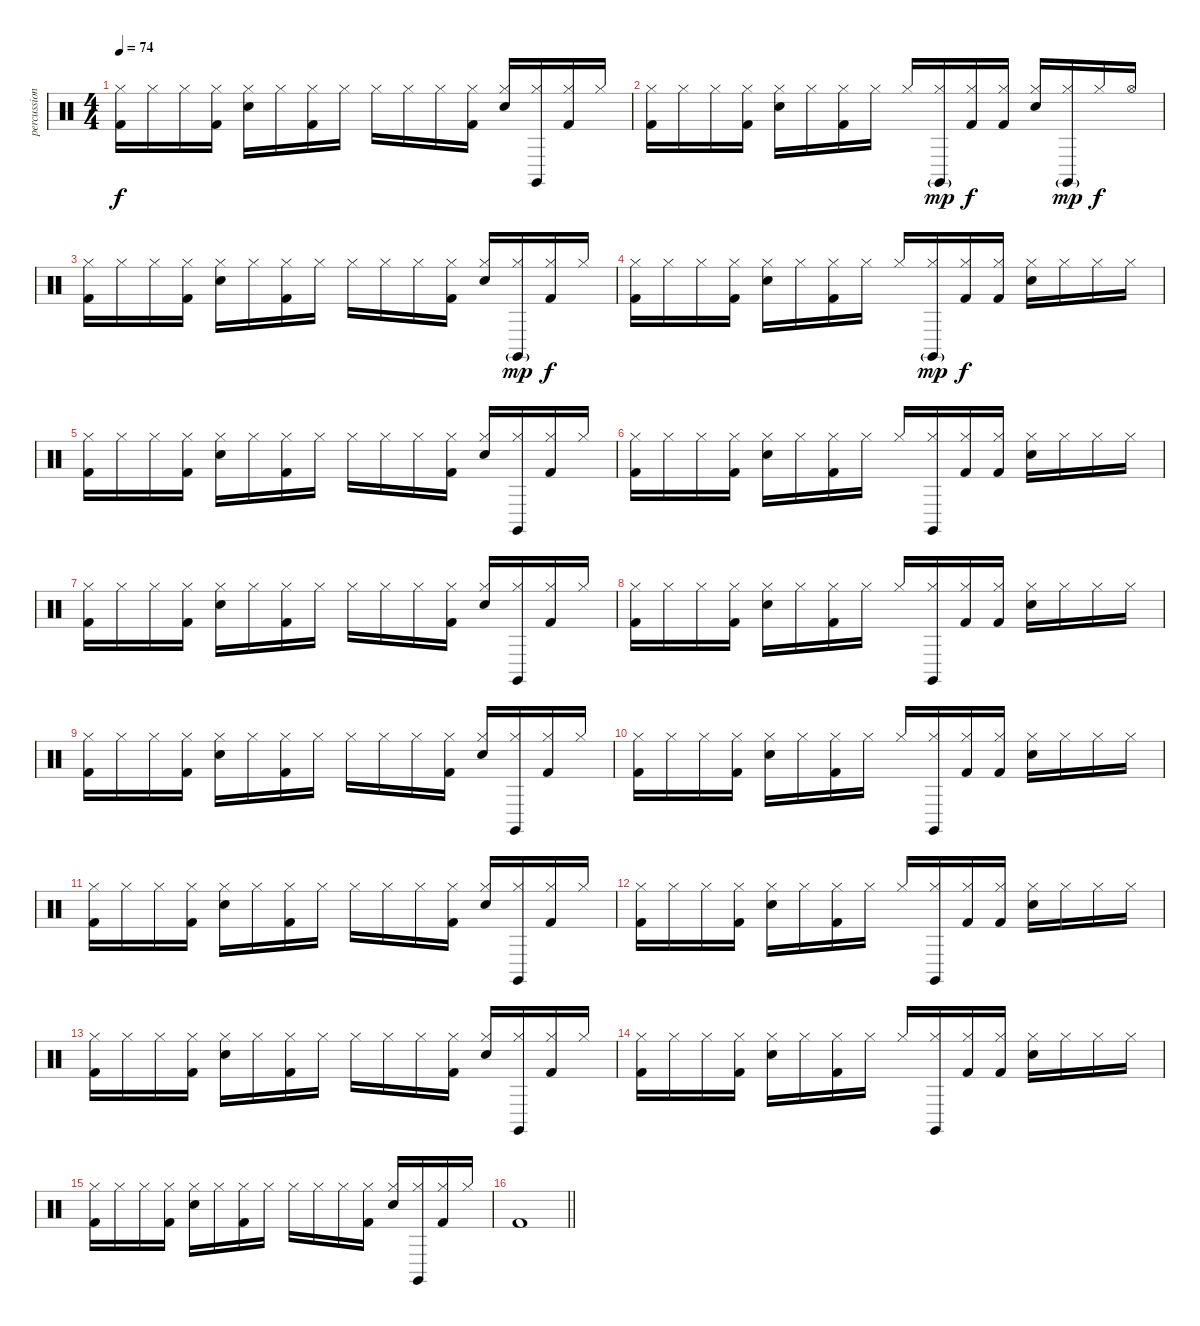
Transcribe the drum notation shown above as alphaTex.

\track ("percussion" "percussion") {instrument percussion}
\staff {score}
\articulation defaults
\ts (4 4)
\tempo 74
\clef neutral
\ks c
("Hi-Hat (closed)" "Kick (hit) 2").16{dy f} "Hi-Hat (closed)".16 "Hi-Hat (closed)".16 ("Hi-Hat (closed)" "Kick (hit) 2").16 ("Snare (hit) 2" "Hi-Hat (closed)").16 "Hi-Hat (closed)".16 ("Hi-Hat (closed)" "Kick (hit) 2").16 "Hi-Hat (closed)".16 "Hi-Hat (closed)".16 "Hi-Hat (closed)".16 "Hi-Hat (closed)".16 ("Hi-Hat (closed)" "Kick (hit) 2").16 ("Snare (hit) 2" "Hi-Hat (closed)").16 ("Claves (hit)" "Hi-Hat (closed)").16 ("Hi-Hat (closed)" "Kick (hit) 2").16 "Hi-Hat (closed)".16 |
("Hi-Hat (closed)" "Kick (hit) 2").16 "Hi-Hat (closed)".16 "Hi-Hat (closed)".16 ("Hi-Hat (closed)" "Kick (hit) 2").16 ("Snare (hit) 2" "Hi-Hat (closed)").16 "Hi-Hat (closed)".16 ("Hi-Hat (closed)" "Kick (hit) 2").16 "Hi-Hat (closed)".16 "Hi-Hat (closed)".16 ("Claves (hit)"{g} "Hi-Hat (closed)").16{dy mp} ("Hi-Hat (closed)" "Kick (hit) 2").16{dy f} ("Hi-Hat (closed)" "Kick (hit) 2").16 ("Snare (hit) 2" "Hi-Hat (closed)").16 ("Claves (hit)"{g} "Hi-Hat (closed)").16{dy mp} "Hi-Hat (closed)".16{dy f} "Hi-Hat (open)".16 |
("Hi-Hat (closed)" "Kick (hit) 2").16 "Hi-Hat (closed)".16 "Hi-Hat (closed)".16 ("Hi-Hat (closed)" "Kick (hit) 2").16 ("Snare (hit) 2" "Hi-Hat (closed)").16 "Hi-Hat (closed)".16 ("Hi-Hat (closed)" "Kick (hit) 2").16 "Hi-Hat (closed)".16 "Hi-Hat (closed)".16 "Hi-Hat (closed)".16 "Hi-Hat (closed)".16 ("Hi-Hat (closed)" "Kick (hit) 2").16 ("Snare (hit) 2" "Hi-Hat (closed)").16 ("Claves (hit)"{g} "Hi-Hat (closed)").16{dy mp} ("Hi-Hat (closed)" "Kick (hit) 2").16{dy f} "Hi-Hat (closed)".16 |
("Hi-Hat (closed)" "Kick (hit) 2").16 "Hi-Hat (closed)".16 "Hi-Hat (closed)".16 ("Hi-Hat (closed)" "Kick (hit) 2").16 ("Snare (hit) 2" "Hi-Hat (closed)").16 "Hi-Hat (closed)".16 ("Hi-Hat (closed)" "Kick (hit) 2").16 "Hi-Hat (closed)".16 "Hi-Hat (closed)".16 ("Claves (hit)"{g} "Hi-Hat (closed)").16{dy mp} ("Hi-Hat (closed)" "Kick (hit) 2").16{dy f} ("Hi-Hat (closed)" "Kick (hit) 2").16 ("Snare (hit) 2" "Hi-Hat (closed)").16 "Hi-Hat (closed)".16 "Hi-Hat (closed)".16 "Hi-Hat (closed)".16 |
("Hi-Hat (closed)" "Kick (hit) 2").16 "Hi-Hat (closed)".16 "Hi-Hat (closed)".16 ("Hi-Hat (closed)" "Kick (hit) 2").16 ("Snare (hit) 2" "Hi-Hat (closed)").16 "Hi-Hat (closed)".16 ("Hi-Hat (closed)" "Kick (hit) 2").16 "Hi-Hat (closed)".16 "Hi-Hat (closed)".16 "Hi-Hat (closed)".16 "Hi-Hat (closed)".16 ("Hi-Hat (closed)" "Kick (hit) 2").16 ("Snare (hit) 2" "Hi-Hat (closed)").16 ("Claves (hit)" "Hi-Hat (closed)").16 ("Hi-Hat (closed)" "Kick (hit) 2").16 "Hi-Hat (closed)".16 |
("Hi-Hat (closed)" "Kick (hit) 2").16 "Hi-Hat (closed)".16 "Hi-Hat (closed)".16 ("Hi-Hat (closed)" "Kick (hit) 2").16 ("Snare (hit) 2" "Hi-Hat (closed)").16 "Hi-Hat (closed)".16 ("Hi-Hat (closed)" "Kick (hit) 2").16 "Hi-Hat (closed)".16 "Hi-Hat (closed)".16 ("Claves (hit)" "Hi-Hat (closed)").16 ("Hi-Hat (closed)" "Kick (hit) 2").16 ("Hi-Hat (closed)" "Kick (hit) 2").16 ("Snare (hit) 2" "Hi-Hat (closed)").16 "Hi-Hat (closed)".16 "Hi-Hat (closed)".16 "Hi-Hat (closed)".16 |
("Hi-Hat (closed)" "Kick (hit) 2").16 "Hi-Hat (closed)".16 "Hi-Hat (closed)".16 ("Hi-Hat (closed)" "Kick (hit) 2").16 ("Snare (hit) 2" "Hi-Hat (closed)").16 "Hi-Hat (closed)".16 ("Hi-Hat (closed)" "Kick (hit) 2").16 "Hi-Hat (closed)".16 "Hi-Hat (closed)".16 "Hi-Hat (closed)".16 "Hi-Hat (closed)".16 ("Hi-Hat (closed)" "Kick (hit) 2").16 ("Snare (hit) 2" "Hi-Hat (closed)").16 ("Claves (hit)" "Hi-Hat (closed)").16 ("Hi-Hat (closed)" "Kick (hit) 2").16 "Hi-Hat (closed)".16 |
("Hi-Hat (closed)" "Kick (hit) 2").16 "Hi-Hat (closed)".16 "Hi-Hat (closed)".16 ("Hi-Hat (closed)" "Kick (hit) 2").16 ("Snare (hit) 2" "Hi-Hat (closed)").16 "Hi-Hat (closed)".16 ("Hi-Hat (closed)" "Kick (hit) 2").16 "Hi-Hat (closed)".16 "Hi-Hat (closed)".16 ("Claves (hit)" "Hi-Hat (closed)").16 ("Hi-Hat (closed)" "Kick (hit) 2").16 ("Hi-Hat (closed)" "Kick (hit) 2").16 ("Snare (hit) 2" "Hi-Hat (closed)").16 "Hi-Hat (closed)".16 "Hi-Hat (closed)".16 "Hi-Hat (closed)".16 |
("Hi-Hat (closed)" "Kick (hit) 2").16 "Hi-Hat (closed)".16 "Hi-Hat (closed)".16 ("Hi-Hat (closed)" "Kick (hit) 2").16 ("Snare (hit) 2" "Hi-Hat (closed)").16 "Hi-Hat (closed)".16 ("Hi-Hat (closed)" "Kick (hit) 2").16 "Hi-Hat (closed)".16 "Hi-Hat (closed)".16 "Hi-Hat (closed)".16 "Hi-Hat (closed)".16 ("Hi-Hat (closed)" "Kick (hit) 2").16 ("Snare (hit) 2" "Hi-Hat (closed)").16 ("Claves (hit)" "Hi-Hat (closed)").16 ("Hi-Hat (closed)" "Kick (hit) 2").16 "Hi-Hat (closed)".16 |
("Hi-Hat (closed)" "Kick (hit) 2").16 "Hi-Hat (closed)".16 "Hi-Hat (closed)".16 ("Hi-Hat (closed)" "Kick (hit) 2").16 ("Snare (hit) 2" "Hi-Hat (closed)").16 "Hi-Hat (closed)".16 ("Hi-Hat (closed)" "Kick (hit) 2").16 "Hi-Hat (closed)".16 "Hi-Hat (closed)".16 ("Claves (hit)" "Hi-Hat (closed)").16 ("Hi-Hat (closed)" "Kick (hit) 2").16 ("Hi-Hat (closed)" "Kick (hit) 2").16 ("Snare (hit) 2" "Hi-Hat (closed)").16 "Hi-Hat (closed)".16 "Hi-Hat (closed)".16 "Hi-Hat (closed)".16 |
("Hi-Hat (closed)" "Kick (hit) 2").16 "Hi-Hat (closed)".16 "Hi-Hat (closed)".16 ("Hi-Hat (closed)" "Kick (hit) 2").16 ("Snare (hit) 2" "Hi-Hat (closed)").16 "Hi-Hat (closed)".16 ("Hi-Hat (closed)" "Kick (hit) 2").16 "Hi-Hat (closed)".16 "Hi-Hat (closed)".16 "Hi-Hat (closed)".16 "Hi-Hat (closed)".16 ("Hi-Hat (closed)" "Kick (hit) 2").16 ("Snare (hit) 2" "Hi-Hat (closed)").16 ("Claves (hit)" "Hi-Hat (closed)").16 ("Hi-Hat (closed)" "Kick (hit) 2").16 "Hi-Hat (closed)".16 |
("Hi-Hat (closed)" "Kick (hit) 2").16 "Hi-Hat (closed)".16 "Hi-Hat (closed)".16 ("Hi-Hat (closed)" "Kick (hit) 2").16 ("Snare (hit) 2" "Hi-Hat (closed)").16 "Hi-Hat (closed)".16 ("Hi-Hat (closed)" "Kick (hit) 2").16 "Hi-Hat (closed)".16 "Hi-Hat (closed)".16 ("Claves (hit)" "Hi-Hat (closed)").16 ("Hi-Hat (closed)" "Kick (hit) 2").16 ("Hi-Hat (closed)" "Kick (hit) 2").16 ("Snare (hit) 2" "Hi-Hat (closed)").16 "Hi-Hat (closed)".16 "Hi-Hat (closed)".16 "Hi-Hat (closed)".16 |
("Hi-Hat (closed)" "Kick (hit) 2").16 "Hi-Hat (closed)".16 "Hi-Hat (closed)".16 ("Hi-Hat (closed)" "Kick (hit) 2").16 ("Snare (hit) 2" "Hi-Hat (closed)").16 "Hi-Hat (closed)".16 ("Hi-Hat (closed)" "Kick (hit) 2").16 "Hi-Hat (closed)".16 "Hi-Hat (closed)".16 "Hi-Hat (closed)".16 "Hi-Hat (closed)".16 ("Hi-Hat (closed)" "Kick (hit) 2").16 ("Snare (hit) 2" "Hi-Hat (closed)").16 ("Claves (hit)" "Hi-Hat (closed)").16 ("Hi-Hat (closed)" "Kick (hit) 2").16 "Hi-Hat (closed)".16 |
("Hi-Hat (closed)" "Kick (hit) 2").16 "Hi-Hat (closed)".16 "Hi-Hat (closed)".16 ("Hi-Hat (closed)" "Kick (hit) 2").16 ("Snare (hit) 2" "Hi-Hat (closed)").16 "Hi-Hat (closed)".16 ("Hi-Hat (closed)" "Kick (hit) 2").16 "Hi-Hat (closed)".16 "Hi-Hat (closed)".16 ("Claves (hit)" "Hi-Hat (closed)").16 ("Hi-Hat (closed)" "Kick (hit) 2").16 ("Hi-Hat (closed)" "Kick (hit) 2").16 ("Snare (hit) 2" "Hi-Hat (closed)").16 "Hi-Hat (closed)".16 "Hi-Hat (closed)".16 "Hi-Hat (closed)".16 |
("Hi-Hat (closed)" "Kick (hit) 2").16 "Hi-Hat (closed)".16 "Hi-Hat (closed)".16 ("Hi-Hat (closed)" "Kick (hit) 2").16 ("Snare (hit) 2" "Hi-Hat (closed)").16 "Hi-Hat (closed)".16 ("Hi-Hat (closed)" "Kick (hit) 2").16 "Hi-Hat (closed)".16 "Hi-Hat (closed)".16 "Hi-Hat (closed)".16 "Hi-Hat (closed)".16 ("Hi-Hat (closed)" "Kick (hit) 2").16 ("Snare (hit) 2" "Hi-Hat (closed)").16 ("Claves (hit)" "Hi-Hat (closed)").16 ("Hi-Hat (closed)" "Kick (hit) 2").16 "Hi-Hat (closed)".16 |
\barLineRight lightlight "Kick (hit) 2".1
